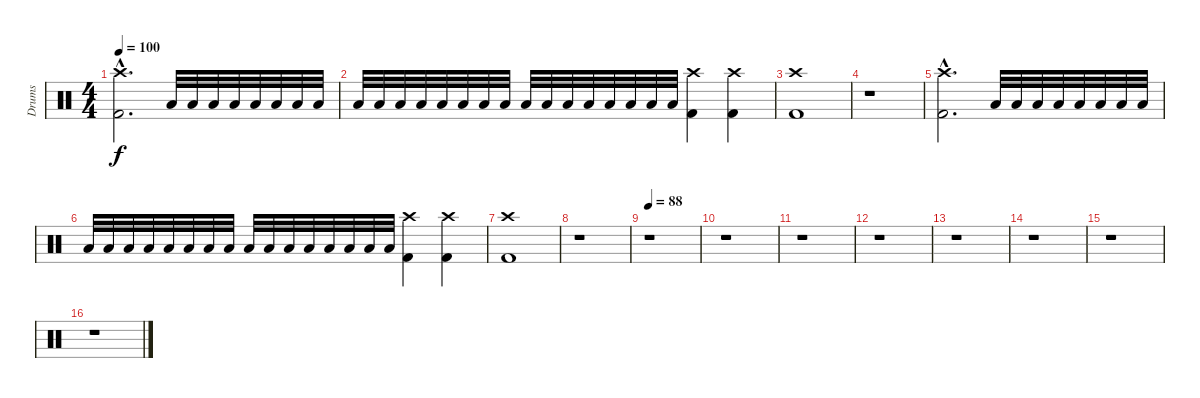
\track ("Drums" "Drums") {instrument percussion}
\staff {score}
\articulation defaults
\ts (4 4)
\tempo 100
\clef neutral
\ks c
("Crash high (hit)"{hac} "Kick (hit) 2"{hac}).2{d dy f} "Low Floor Tom (hit)".32{volume 0} "Low Floor Tom (hit)".32{volume 13} "Low Floor Tom (hit)".32 "Low Floor Tom (hit)".32 "Low Floor Tom (hit)".32 "Low Floor Tom (hit)".32 "Low Floor Tom (hit)".32 "Low Floor Tom (hit)".32 |
"Low Floor Tom (hit)".32 "Low Floor Tom (hit)".32 "Low Floor Tom (hit)".32 "Low Floor Tom (hit)".32 "Low Floor Tom (hit)".32 "Low Floor Tom (hit)".32 "Low Floor Tom (hit)".32 "Low Floor Tom (hit)".32 "Low Floor Tom (hit)".32 "Low Floor Tom (hit)".32 "Low Floor Tom (hit)".32 "Low Floor Tom (hit)".32 "Low Floor Tom (hit)".32 "Low Floor Tom (hit)".32 "Low Floor Tom (hit)".32 "Low Floor Tom (hit)".32 ("Crash high (hit)" "Kick (hit) 2").4 ("Crash high (hit)" "Kick (hit) 2").4 |
("Crash high (hit)" "Kick (hit) 2").1 |
r.1 |
("Crash high (hit)"{hac} "Kick (hit) 2"{hac}).2{d} "Low Floor Tom (hit)".32{volume 0} "Low Floor Tom (hit)".32{volume 13} "Low Floor Tom (hit)".32 "Low Floor Tom (hit)".32 "Low Floor Tom (hit)".32 "Low Floor Tom (hit)".32 "Low Floor Tom (hit)".32 "Low Floor Tom (hit)".32 |
"Low Floor Tom (hit)".32 "Low Floor Tom (hit)".32 "Low Floor Tom (hit)".32 "Low Floor Tom (hit)".32 "Low Floor Tom (hit)".32 "Low Floor Tom (hit)".32 "Low Floor Tom (hit)".32 "Low Floor Tom (hit)".32 "Low Floor Tom (hit)".32 "Low Floor Tom (hit)".32 "Low Floor Tom (hit)".32 "Low Floor Tom (hit)".32 "Low Floor Tom (hit)".32 "Low Floor Tom (hit)".32 "Low Floor Tom (hit)".32 "Low Floor Tom (hit)".32 ("Crash high (hit)" "Kick (hit) 2").4 ("Crash high (hit)" "Kick (hit) 2").4 |
("Crash high (hit)" "Kick (hit) 2").1 |
r.1 |
\tempo 88
r.1 |
r.1 |
r.1 |
r.1 |
r.1 |
r.1 |
r.1 |
r.1
